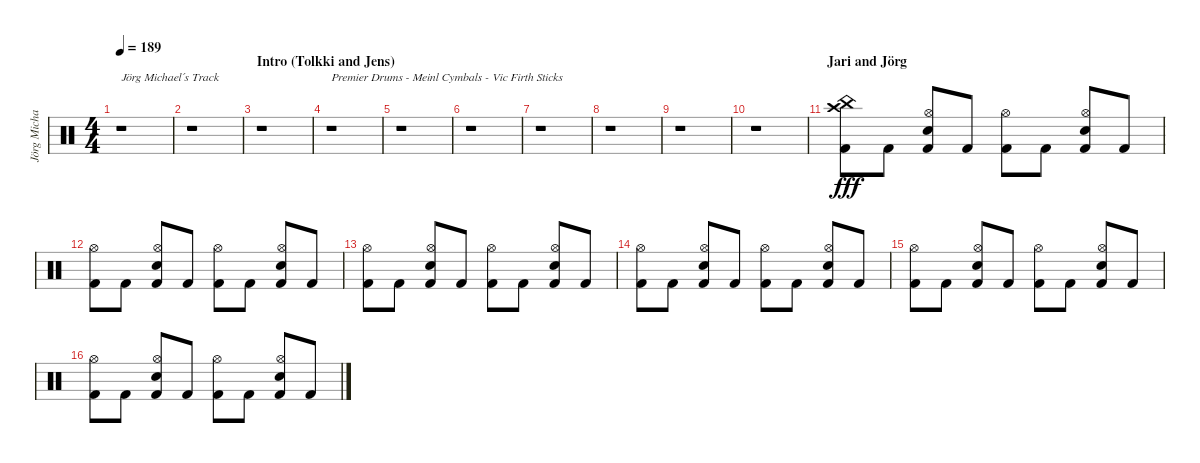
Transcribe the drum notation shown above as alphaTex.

\track ("Jörg Michael" "Jörg Micha") {instrument percussion}
\staff {score}
\articulation defaults
\ts (4 4)
\tempo 189
\clef neutral
\ks c
r.1{txt "Jörg Michael´s Track" dy fff} |
r.1 |
\section ("" "Intro (Tolkki and Jens)")
r.1 |
r.1{txt "Premier Drums - Meinl Cymbals - Vic Firth Sticks"} |
r.1 |
r.1 |
r.1 |
r.1 |
r.1 |
r.1 |
\section ("" "Jari and Jörg")
("Crash high (hit)" "China (hit)" "Kick (hit) 2").8 "Kick (hit) 2".8 ("Hi-Hat (open)" "Electric Snare (hit)" "Kick (hit) 2").8 "Kick (hit) 2".8 ("Hi-Hat (open)" "Kick (hit) 2").8 "Kick (hit) 2".8 ("Hi-Hat (open)" "Electric Snare (hit)" "Kick (hit) 2").8 "Kick (hit) 2".8 |
("Hi-Hat (open)" "Kick (hit) 2").8 "Kick (hit) 2".8 ("Hi-Hat (open)" "Electric Snare (hit)" "Kick (hit) 2").8 "Kick (hit) 2".8 ("Hi-Hat (open)" "Kick (hit) 2").8 "Kick (hit) 2".8 ("Hi-Hat (open)" "Electric Snare (hit)" "Kick (hit) 2").8 "Kick (hit) 2".8 |
("Hi-Hat (open)" "Kick (hit) 2").8 "Kick (hit) 2".8 ("Hi-Hat (open)" "Electric Snare (hit)" "Kick (hit) 2").8 "Kick (hit) 2".8 ("Hi-Hat (open)" "Kick (hit) 2").8 "Kick (hit) 2".8 ("Hi-Hat (open)" "Electric Snare (hit)" "Kick (hit) 2").8 "Kick (hit) 2".8 |
("Hi-Hat (open)" "Kick (hit) 2").8 "Kick (hit) 2".8 ("Hi-Hat (open)" "Electric Snare (hit)" "Kick (hit) 2").8 "Kick (hit) 2".8 ("Hi-Hat (open)" "Kick (hit) 2").8 "Kick (hit) 2".8 ("Hi-Hat (open)" "Electric Snare (hit)" "Kick (hit) 2").8 "Kick (hit) 2".8 |
("Hi-Hat (open)" "Kick (hit) 2").8 "Kick (hit) 2".8 ("Hi-Hat (open)" "Electric Snare (hit)" "Kick (hit) 2").8 "Kick (hit) 2".8 ("Hi-Hat (open)" "Kick (hit) 2").8 "Kick (hit) 2".8 ("Hi-Hat (open)" "Electric Snare (hit)" "Kick (hit) 2").8 "Kick (hit) 2".8 |
("Hi-Hat (open)" "Kick (hit) 2").8 "Kick (hit) 2".8 ("Hi-Hat (open)" "Electric Snare (hit)" "Kick (hit) 2").8 "Kick (hit) 2".8 ("Hi-Hat (open)" "Kick (hit) 2").8 "Kick (hit) 2".8 ("Hi-Hat (open)" "Electric Snare (hit)" "Kick (hit) 2").8 "Kick (hit) 2".8
